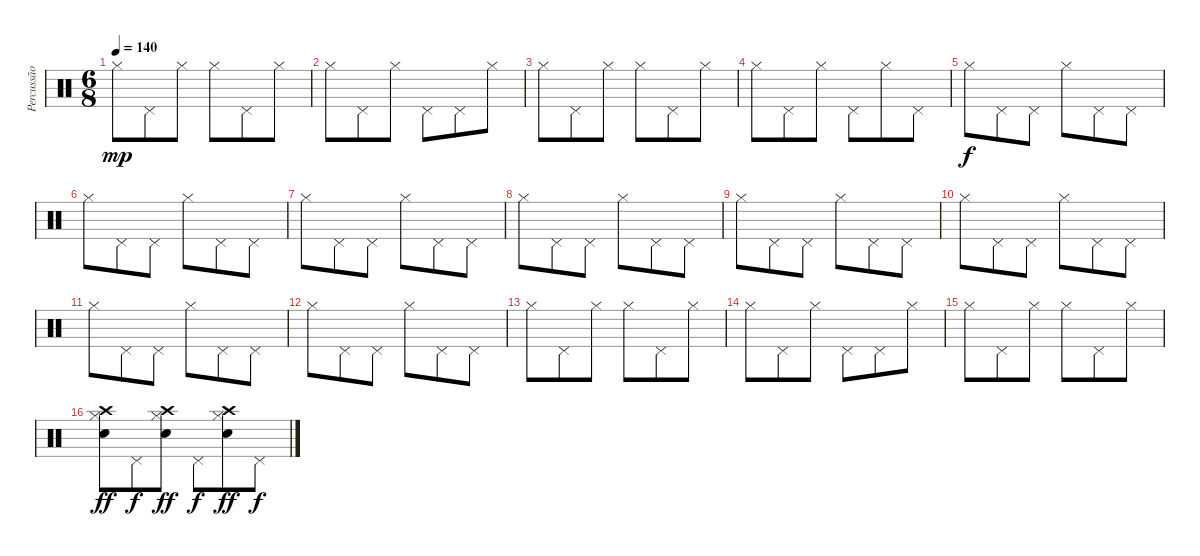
\track ("Percussão" "Percussão") {instrument percussion}
\staff {score}
\articulation defaults
\ts (6 8)
\tempo 140
\clef neutral
\ks c "Hi-Hat (closed)".8{dy mp} "Pedal Hi-Hat (hit)".8 "Hi-Hat (closed)".8 "Hi-Hat (closed)".8 "Pedal Hi-Hat (hit)".8 "Hi-Hat (closed)".8
|
"Hi-Hat (closed)".8 "Pedal Hi-Hat (hit)".8 "Hi-Hat (closed)".8 "Pedal Hi-Hat (hit)".8 "Pedal Hi-Hat (hit)".8 "Hi-Hat (closed)".8 |
"Hi-Hat (closed)".8 "Pedal Hi-Hat (hit)".8 "Hi-Hat (closed)".8 "Hi-Hat (closed)".8 "Pedal Hi-Hat (hit)".8 "Hi-Hat (closed)".8 |
"Hi-Hat (closed)".8 "Pedal Hi-Hat (hit)".8 "Hi-Hat (closed)".8 "Pedal Hi-Hat (hit)".8 "Hi-Hat (closed)".8 "Pedal Hi-Hat (hit)".8 |
"Hi-Hat (closed)".8{dy f} "Pedal Hi-Hat (hit)".8 "Pedal Hi-Hat (hit)".8 "Hi-Hat (closed)".8 "Pedal Hi-Hat (hit)".8 "Pedal Hi-Hat (hit)".8 |
"Hi-Hat (closed)".8 "Pedal Hi-Hat (hit)".8 "Pedal Hi-Hat (hit)".8 "Hi-Hat (closed)".8 "Pedal Hi-Hat (hit)".8 "Pedal Hi-Hat (hit)".8 |
"Hi-Hat (closed)".8 "Pedal Hi-Hat (hit)".8 "Pedal Hi-Hat (hit)".8 "Hi-Hat (closed)".8 "Pedal Hi-Hat (hit)".8 "Pedal Hi-Hat (hit)".8 |
"Hi-Hat (closed)".8 "Pedal Hi-Hat (hit)".8 "Pedal Hi-Hat (hit)".8 "Hi-Hat (closed)".8 "Pedal Hi-Hat (hit)".8 "Pedal Hi-Hat (hit)".8 |
"Hi-Hat (closed)".8 "Pedal Hi-Hat (hit)".8 "Pedal Hi-Hat (hit)".8 "Hi-Hat (closed)".8 "Pedal Hi-Hat (hit)".8 "Pedal Hi-Hat (hit)".8 |
"Hi-Hat (closed)".8 "Pedal Hi-Hat (hit)".8 "Pedal Hi-Hat (hit)".8 "Hi-Hat (closed)".8 "Pedal Hi-Hat (hit)".8 "Pedal Hi-Hat (hit)".8 |
"Hi-Hat (closed)".8 "Pedal Hi-Hat (hit)".8 "Pedal Hi-Hat (hit)".8 "Hi-Hat (closed)".8 "Pedal Hi-Hat (hit)".8 "Pedal Hi-Hat (hit)".8 |
"Hi-Hat (closed)".8 "Pedal Hi-Hat (hit)".8 "Pedal Hi-Hat (hit)".8 "Hi-Hat (closed)".8 "Pedal Hi-Hat (hit)".8 "Pedal Hi-Hat (hit)".8 |
"Hi-Hat (closed)".8 "Pedal Hi-Hat (hit)".8 "Hi-Hat (closed)".8 "Hi-Hat (closed)".8 "Pedal Hi-Hat (hit)".8 "Hi-Hat (closed)".8 |
"Hi-Hat (closed)".8 "Pedal Hi-Hat (hit)".8 "Hi-Hat (closed)".8 "Pedal Hi-Hat (hit)".8 "Pedal Hi-Hat (hit)".8 "Hi-Hat (closed)".8 |
"Hi-Hat (closed)".8 "Pedal Hi-Hat (hit)".8 "Hi-Hat (closed)".8 "Hi-Hat (closed)".8 "Pedal Hi-Hat (hit)".8 "Hi-Hat (closed)".8 |
("Hi-Hat (closed)" "Snare (hit) 2" "Crash high (hit)").8{dy ff} "Pedal Hi-Hat (hit)".8{dy f} ("Hi-Hat (closed)" "Snare (hit) 2" "Crash high (hit)").8{dy ff} "Pedal Hi-Hat (hit)".8{dy f} ("Hi-Hat (closed)" "Snare (hit) 2" "Crash high (hit)").8{dy ff} "Pedal Hi-Hat (hit)".8{dy f}
